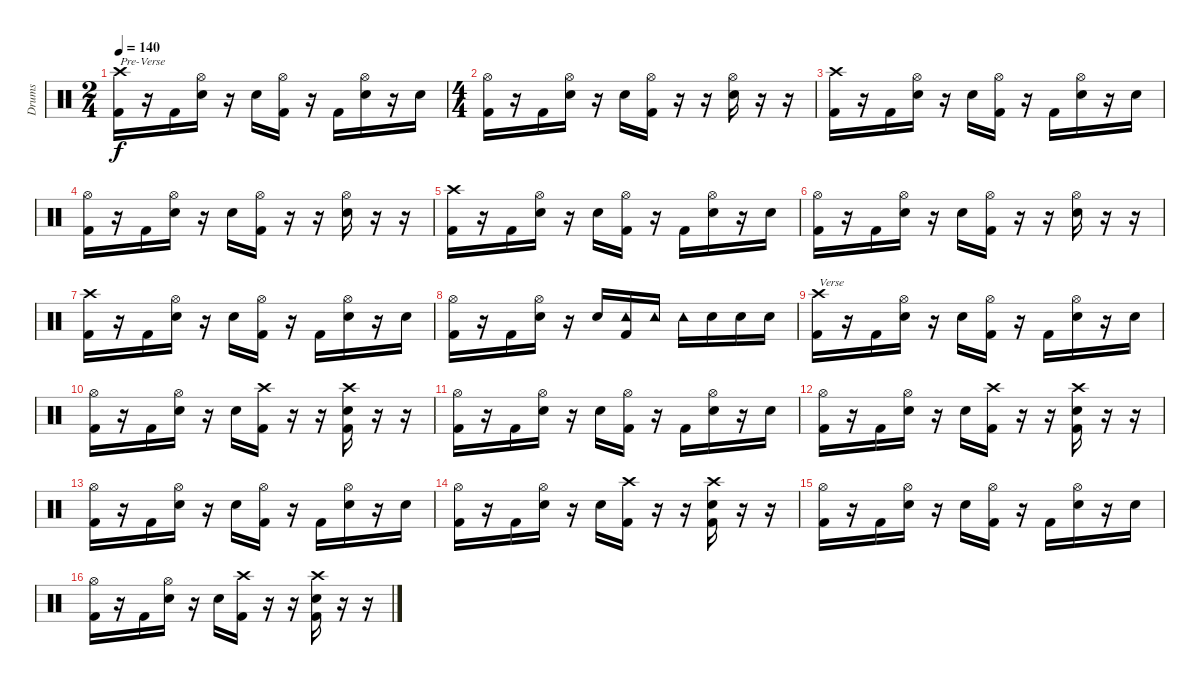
\track ("Drums" "Drums") {instrument percussion}
\staff {score}
\articulation defaults
\ts (2 4)
\tempo 140
\clef neutral
\ks c
("Crash high (hit)" "Kick (hit) 2").16{txt "Pre-Verse" dy f} r.16 "Kick (hit) 2".16 ("Hi-Hat (open)" "Snare (hit) 2").16 r.16 "Snare (hit) 2".16 ("Hi-Hat (open)" "Kick (hit) 2").16 r.16 "Kick (hit) 2".16 ("Hi-Hat (open)" "Snare (hit) 2").16 r.16 "Snare (hit) 2".16 |
\ts (4 4)
("Hi-Hat (open)" "Kick (hit) 2").16 r.16 "Kick (hit) 2".16 ("Hi-Hat (open)" "Snare (hit) 2").16 r.16 "Snare (hit) 2".16 ("Hi-Hat (open)" "Kick (hit) 2").16 r.16 r.16 ("Hi-Hat (open)" "Snare (hit) 2").16 r.16 r.16 |
("Crash high (hit)" "Kick (hit) 2").16 r.16 "Kick (hit) 2".16 ("Hi-Hat (open)" "Snare (hit) 2").16 r.16 "Snare (hit) 2".16 ("Hi-Hat (open)" "Kick (hit) 2").16 r.16 "Kick (hit) 2".16 ("Hi-Hat (open)" "Snare (hit) 2").16 r.16 "Snare (hit) 2".16 |
("Hi-Hat (open)" "Kick (hit) 2").16 r.16 "Kick (hit) 2".16 ("Hi-Hat (open)" "Snare (hit) 2").16 r.16 "Snare (hit) 2".16 ("Hi-Hat (open)" "Kick (hit) 2").16 r.16 r.16 ("Hi-Hat (open)" "Snare (hit) 2").16 r.16 r.16 |
("Crash high (hit)" "Kick (hit) 2").16 r.16 "Kick (hit) 2".16 ("Hi-Hat (open)" "Snare (hit) 2").16 r.16 "Snare (hit) 2".16 ("Hi-Hat (open)" "Kick (hit) 2").16 r.16 "Kick (hit) 2".16 ("Hi-Hat (open)" "Snare (hit) 2").16 r.16 "Snare (hit) 2".16 |
("Hi-Hat (open)" "Kick (hit) 2").16 r.16 "Kick (hit) 2".16 ("Hi-Hat (open)" "Snare (hit) 2").16 r.16 "Snare (hit) 2".16 ("Hi-Hat (open)" "Kick (hit) 2").16 r.16 r.16 ("Hi-Hat (open)" "Snare (hit) 2").16 r.16 r.16 |
("Crash high (hit)" "Kick (hit) 2").16 r.16 "Kick (hit) 2".16 ("Hi-Hat (open)" "Snare (hit) 2").16 r.16 "Snare (hit) 2".16 ("Hi-Hat (open)" "Kick (hit) 2").16 r.16 "Kick (hit) 2".16 ("Hi-Hat (open)" "Snare (hit) 2").16 r.16 "Snare (hit) 2".16 |
("Hi-Hat (open)" "Kick (hit) 2").16 r.16 "Kick (hit) 2".16 ("Hi-Hat (open)" "Snare (hit) 2").16 r.16 "Snare (hit) 2".16 ("Tambourine (hit)" "Kick (hit) 2").16 "Tambourine (hit)".16 "Tambourine (hit)".16 "Snare (hit) 2".16 "Snare (hit) 2".16 "Snare (hit) 2".16 |
("Crash high (hit)" "Kick (hit) 2").16{txt "Verse"} r.16 "Kick (hit) 2".16 ("Hi-Hat (open)" "Snare (hit) 2").16 r.16 "Snare (hit) 2".16 ("Hi-Hat (open)" "Kick (hit) 2").16 r.16 "Kick (hit) 2".16 ("Hi-Hat (open)" "Snare (hit) 2").16 r.16 "Snare (hit) 2".16 |
("Hi-Hat (open)" "Kick (hit) 2").16 r.16 "Kick (hit) 2".16 ("Hi-Hat (open)" "Snare (hit) 2").16 r.16 "Snare (hit) 2".16 ("Crash high (hit)" "Kick (hit) 2").16 r.16 r.16 ("Crash high (hit)" "Snare (hit) 2" "Kick (hit) 2").16 r.16 r.16 |
("Hi-Hat (open)" "Kick (hit) 2").16 r.16 "Kick (hit) 2".16 ("Hi-Hat (open)" "Snare (hit) 2").16 r.16 "Snare (hit) 2".16 ("Hi-Hat (open)" "Kick (hit) 2").16 r.16 "Kick (hit) 2".16 ("Hi-Hat (open)" "Snare (hit) 2").16 r.16 "Snare (hit) 2".16 |
("Hi-Hat (open)" "Kick (hit) 2").16 r.16 "Kick (hit) 2".16 ("Hi-Hat (open)" "Snare (hit) 2").16 r.16 "Snare (hit) 2".16 ("Crash high (hit)" "Kick (hit) 2").16 r.16 r.16 ("Crash high (hit)" "Snare (hit) 2" "Kick (hit) 2").16 r.16 r.16 |
("Hi-Hat (open)" "Kick (hit) 2").16 r.16 "Kick (hit) 2".16 ("Hi-Hat (open)" "Snare (hit) 2").16 r.16 "Snare (hit) 2".16 ("Hi-Hat (open)" "Kick (hit) 2").16 r.16 "Kick (hit) 2".16 ("Hi-Hat (open)" "Snare (hit) 2").16 r.16 "Snare (hit) 2".16 |
("Hi-Hat (open)" "Kick (hit) 2").16 r.16 "Kick (hit) 2".16 ("Hi-Hat (open)" "Snare (hit) 2").16 r.16 "Snare (hit) 2".16 ("Crash high (hit)" "Kick (hit) 2").16 r.16 r.16 ("Crash high (hit)" "Snare (hit) 2" "Kick (hit) 2").16 r.16 r.16 |
("Hi-Hat (open)" "Kick (hit) 2").16 r.16 "Kick (hit) 2".16 ("Hi-Hat (open)" "Snare (hit) 2").16 r.16 "Snare (hit) 2".16 ("Hi-Hat (open)" "Kick (hit) 2").16 r.16 "Kick (hit) 2".16 ("Hi-Hat (open)" "Snare (hit) 2").16 r.16 "Snare (hit) 2".16 |
("Hi-Hat (open)" "Kick (hit) 2").16 r.16 "Kick (hit) 2".16 ("Hi-Hat (open)" "Snare (hit) 2").16 r.16 "Snare (hit) 2".16 ("Crash high (hit)" "Kick (hit) 2").16 r.16 r.16 ("Crash high (hit)" "Snare (hit) 2" "Kick (hit) 2").16 r.16 r.16
